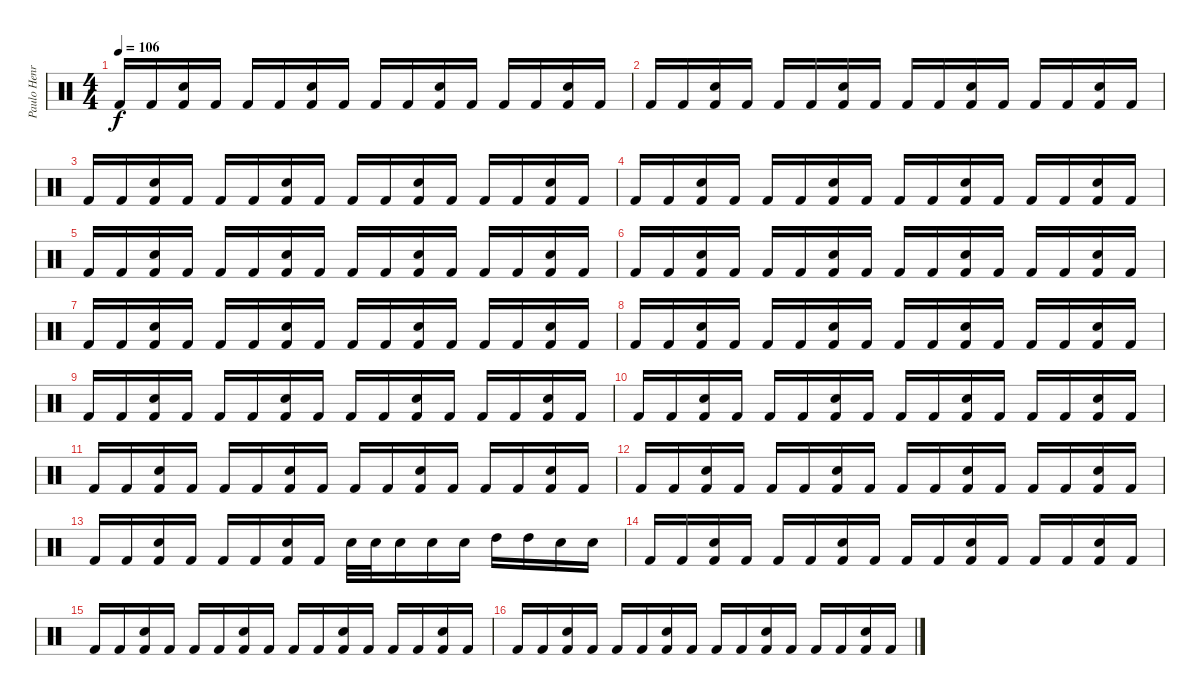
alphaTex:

\track ("Paulo Henrique" "Paulo Henr") {instrument percussion}
\staff {score}
\articulation defaults
\ts (4 4)
\tempo 106
\clef neutral
\ks c "Kick (hit) 2".16{dy f} "Kick (hit) 2".16
("Electric Snare (hit)" "Kick (hit) 2").16 "Kick (hit) 2".16 "Kick (hit) 2".16 "Kick (hit) 2".16 ("Electric Snare (hit)" "Kick (hit) 2").16 "Kick (hit) 2".16 "Kick (hit) 2".16 "Kick (hit) 2".16 ("Electric Snare (hit)" "Kick (hit) 2").16 "Kick (hit) 2".16 "Kick (hit) 2".16 "Kick (hit) 2".16 ("Electric Snare (hit)" "Kick (hit) 2").16 "Kick (hit) 2".16 |
"Kick (hit) 2".16 "Kick (hit) 2".16 ("Electric Snare (hit)" "Kick (hit) 2").16 "Kick (hit) 2".16 "Kick (hit) 2".16 "Kick (hit) 2".16 ("Electric Snare (hit)" "Kick (hit) 2").16 "Kick (hit) 2".16 "Kick (hit) 2".16 "Kick (hit) 2".16 ("Electric Snare (hit)" "Kick (hit) 2").16 "Kick (hit) 2".16 "Kick (hit) 2".16 "Kick (hit) 2".16 ("Electric Snare (hit)" "Kick (hit) 2").16 "Kick (hit) 2".16 |
"Kick (hit) 2".16 "Kick (hit) 2".16 ("Electric Snare (hit)" "Kick (hit) 2").16 "Kick (hit) 2".16 "Kick (hit) 2".16 "Kick (hit) 2".16 ("Electric Snare (hit)" "Kick (hit) 2").16 "Kick (hit) 2".16 "Kick (hit) 2".16 "Kick (hit) 2".16 ("Electric Snare (hit)" "Kick (hit) 2").16 "Kick (hit) 2".16 "Kick (hit) 2".16 "Kick (hit) 2".16 ("Electric Snare (hit)" "Kick (hit) 2").16 "Kick (hit) 2".16 |
"Kick (hit) 2".16 "Kick (hit) 2".16 ("Electric Snare (hit)" "Kick (hit) 2").16 "Kick (hit) 2".16 "Kick (hit) 2".16 "Kick (hit) 2".16 ("Electric Snare (hit)" "Kick (hit) 2").16 "Kick (hit) 2".16 "Kick (hit) 2".16 "Kick (hit) 2".16 ("Electric Snare (hit)" "Kick (hit) 2").16 "Kick (hit) 2".16 "Kick (hit) 2".16 "Kick (hit) 2".16 ("Electric Snare (hit)" "Kick (hit) 2").16 "Kick (hit) 2".16 |
"Kick (hit) 2".16 "Kick (hit) 2".16 ("Electric Snare (hit)" "Kick (hit) 2").16 "Kick (hit) 2".16 "Kick (hit) 2".16 "Kick (hit) 2".16 ("Electric Snare (hit)" "Kick (hit) 2").16 "Kick (hit) 2".16 "Kick (hit) 2".16 "Kick (hit) 2".16 ("Electric Snare (hit)" "Kick (hit) 2").16 "Kick (hit) 2".16 "Kick (hit) 2".16 "Kick (hit) 2".16 ("Electric Snare (hit)" "Kick (hit) 2").16 "Kick (hit) 2".16 |
"Kick (hit) 2".16 "Kick (hit) 2".16 ("Electric Snare (hit)" "Kick (hit) 2").16 "Kick (hit) 2".16 "Kick (hit) 2".16 "Kick (hit) 2".16 ("Electric Snare (hit)" "Kick (hit) 2").16 "Kick (hit) 2".16 "Kick (hit) 2".16 "Kick (hit) 2".16 ("Electric Snare (hit)" "Kick (hit) 2").16 "Kick (hit) 2".16 "Kick (hit) 2".16 "Kick (hit) 2".16 ("Electric Snare (hit)" "Kick (hit) 2").16 "Kick (hit) 2".16 |
"Kick (hit) 2".16 "Kick (hit) 2".16 ("Electric Snare (hit)" "Kick (hit) 2").16 "Kick (hit) 2".16 "Kick (hit) 2".16 "Kick (hit) 2".16 ("Electric Snare (hit)" "Kick (hit) 2").16 "Kick (hit) 2".16 "Kick (hit) 2".16 "Kick (hit) 2".16 ("Electric Snare (hit)" "Kick (hit) 2").16 "Kick (hit) 2".16 "Kick (hit) 2".16 "Kick (hit) 2".16 ("Electric Snare (hit)" "Kick (hit) 2").16 "Kick (hit) 2".16 |
"Kick (hit) 2".16 "Kick (hit) 2".16 ("Electric Snare (hit)" "Kick (hit) 2").16 "Kick (hit) 2".16 "Kick (hit) 2".16 "Kick (hit) 2".16 ("Electric Snare (hit)" "Kick (hit) 2").16 "Kick (hit) 2".16 "Kick (hit) 2".16 "Kick (hit) 2".16 ("Electric Snare (hit)" "Kick (hit) 2").16 "Kick (hit) 2".16 "Kick (hit) 2".16 "Kick (hit) 2".16 ("Electric Snare (hit)" "Kick (hit) 2").16 "Kick (hit) 2".16 |
"Kick (hit) 2".16 "Kick (hit) 2".16 ("Electric Snare (hit)" "Kick (hit) 2").16 "Kick (hit) 2".16 "Kick (hit) 2".16 "Kick (hit) 2".16 ("Electric Snare (hit)" "Kick (hit) 2").16 "Kick (hit) 2".16 "Kick (hit) 2".16 "Kick (hit) 2".16 ("Electric Snare (hit)" "Kick (hit) 2").16 "Kick (hit) 2".16 "Kick (hit) 2".16 "Kick (hit) 2".16 ("Electric Snare (hit)" "Kick (hit) 2").16 "Kick (hit) 2".16 |
"Kick (hit) 2".16 "Kick (hit) 2".16 ("Electric Snare (hit)" "Kick (hit) 2").16 "Kick (hit) 2".16 "Kick (hit) 2".16 "Kick (hit) 2".16 ("Electric Snare (hit)" "Kick (hit) 2").16 "Kick (hit) 2".16 "Kick (hit) 2".16 "Kick (hit) 2".16 ("Electric Snare (hit)" "Kick (hit) 2").16 "Kick (hit) 2".16 "Kick (hit) 2".16 "Kick (hit) 2".16 ("Electric Snare (hit)" "Kick (hit) 2").16 "Kick (hit) 2".16 |
"Kick (hit) 2".16 "Kick (hit) 2".16 ("Electric Snare (hit)" "Kick (hit) 2").16 "Kick (hit) 2".16 "Kick (hit) 2".16 "Kick (hit) 2".16 ("Electric Snare (hit)" "Kick (hit) 2").16 "Kick (hit) 2".16 "Kick (hit) 2".16 "Kick (hit) 2".16 ("Electric Snare (hit)" "Kick (hit) 2").16 "Kick (hit) 2".16 "Kick (hit) 2".16 "Kick (hit) 2".16 ("Electric Snare (hit)" "Kick (hit) 2").16 "Kick (hit) 2".16 |
"Kick (hit) 2".16 "Kick (hit) 2".16 ("Electric Snare (hit)" "Kick (hit) 2").16 "Kick (hit) 2".16 "Kick (hit) 2".16 "Kick (hit) 2".16 ("Electric Snare (hit)" "Kick (hit) 2").16 "Kick (hit) 2".16 "Kick (hit) 2".16 "Kick (hit) 2".16 ("Electric Snare (hit)" "Kick (hit) 2").16 "Kick (hit) 2".16 "Kick (hit) 2".16 "Kick (hit) 2".16 ("Electric Snare (hit)" "Kick (hit) 2").16 "Kick (hit) 2".16 |
"Kick (hit) 2".16 "Kick (hit) 2".16 ("Electric Snare (hit)" "Kick (hit) 2").16 "Kick (hit) 2".16 "Kick (hit) 2".16 "Kick (hit) 2".16 ("Electric Snare (hit)" "Kick (hit) 2").16 "Kick (hit) 2".16 "Electric Snare (hit)".32 "Electric Snare (hit)".32 "Electric Snare (hit)".16 "Electric Snare (hit)".16 "Electric Snare (hit)".16 "High Tom (hit)".16 "High Tom (hit)".16 "Electric Snare (hit)".16 "Electric Snare (hit)".16 |
"Kick (hit) 2".16 "Kick (hit) 2".16 ("Electric Snare (hit)" "Kick (hit) 2").16 "Kick (hit) 2".16 "Kick (hit) 2".16 "Kick (hit) 2".16 ("Electric Snare (hit)" "Kick (hit) 2").16 "Kick (hit) 2".16 "Kick (hit) 2".16 "Kick (hit) 2".16 ("Electric Snare (hit)" "Kick (hit) 2").16 "Kick (hit) 2".16 "Kick (hit) 2".16 "Kick (hit) 2".16 ("Electric Snare (hit)" "Kick (hit) 2").16 "Kick (hit) 2".16 |
"Kick (hit) 2".16 "Kick (hit) 2".16 ("Electric Snare (hit)" "Kick (hit) 2").16 "Kick (hit) 2".16 "Kick (hit) 2".16 "Kick (hit) 2".16 ("Electric Snare (hit)" "Kick (hit) 2").16 "Kick (hit) 2".16 "Kick (hit) 2".16 "Kick (hit) 2".16 ("Electric Snare (hit)" "Kick (hit) 2").16 "Kick (hit) 2".16 "Kick (hit) 2".16 "Kick (hit) 2".16 ("Electric Snare (hit)" "Kick (hit) 2").16 "Kick (hit) 2".16 |
"Kick (hit) 2".16 "Kick (hit) 2".16 ("Electric Snare (hit)" "Kick (hit) 2").16 "Kick (hit) 2".16 "Kick (hit) 2".16 "Kick (hit) 2".16 ("Electric Snare (hit)" "Kick (hit) 2").16 "Kick (hit) 2".16 "Kick (hit) 2".16 "Kick (hit) 2".16 ("Electric Snare (hit)" "Kick (hit) 2").16 "Kick (hit) 2".16 "Kick (hit) 2".16 "Kick (hit) 2".16 ("Electric Snare (hit)" "Kick (hit) 2").16 "Kick (hit) 2".16
